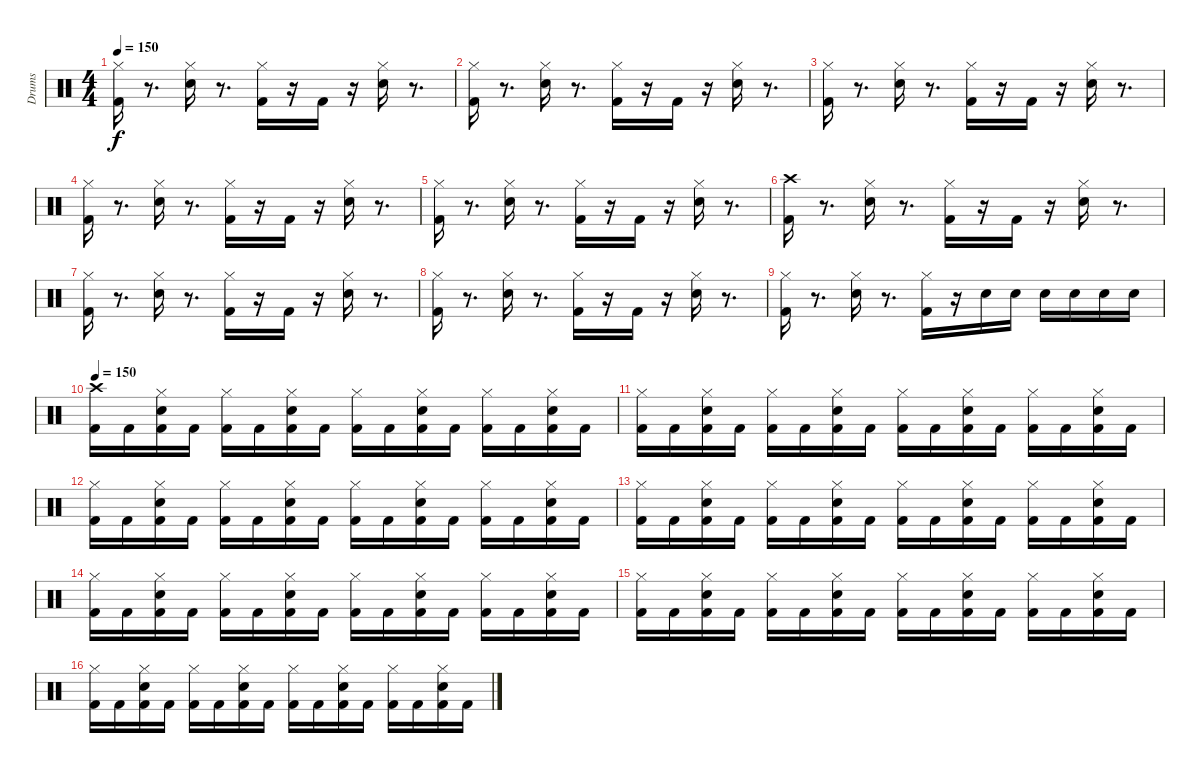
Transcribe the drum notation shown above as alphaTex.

\track ("Drums" "Drums") {instrument percussion}
\staff {score}
\articulation defaults
\ts (4 4)
\tempo 150
\clef neutral
\ks c
("Hi-Hat (closed)" "Kick (hit) 2").16{dy f} r.8{d} ("Hi-Hat (closed)" "Electric Snare (hit)").16 r.8{d} ("Hi-Hat (closed)" "Kick (hit) 2").16 r.16 "Kick (hit) 2".16 r.16 ("Hi-Hat (closed)" "Electric Snare (hit)").16 r.8{d} |
("Hi-Hat (closed)" "Kick (hit) 2").16 r.8{d} ("Hi-Hat (closed)" "Electric Snare (hit)").16 r.8{d} ("Hi-Hat (closed)" "Kick (hit) 2").16 r.16 "Kick (hit) 2".16 r.16 ("Hi-Hat (closed)" "Electric Snare (hit)").16 r.8{d} |
("Hi-Hat (closed)" "Kick (hit) 2").16 r.8{d} ("Hi-Hat (closed)" "Electric Snare (hit)").16 r.8{d} ("Hi-Hat (closed)" "Kick (hit) 2").16 r.16 "Kick (hit) 2".16 r.16 ("Hi-Hat (closed)" "Electric Snare (hit)").16 r.8{d} |
("Hi-Hat (closed)" "Kick (hit) 2").16 r.8{d} ("Hi-Hat (closed)" "Electric Snare (hit)").16 r.8{d} ("Hi-Hat (closed)" "Kick (hit) 2").16 r.16 "Kick (hit) 2".16 r.16 ("Hi-Hat (closed)" "Electric Snare (hit)").16 r.8{d} |
("Hi-Hat (closed)" "Kick (hit) 2").16 r.8{d} ("Hi-Hat (closed)" "Electric Snare (hit)").16 r.8{d} ("Hi-Hat (closed)" "Kick (hit) 2").16 r.16 "Kick (hit) 2".16 r.16 ("Hi-Hat (closed)" "Electric Snare (hit)").16 r.8{d} |
("Crash high (hit)" "Kick (hit) 2").16 r.8{d} ("Hi-Hat (closed)" "Electric Snare (hit)").16 r.8{d} ("Hi-Hat (closed)" "Kick (hit) 2").16 r.16 "Kick (hit) 2".16 r.16 ("Hi-Hat (closed)" "Electric Snare (hit)").16 r.8{d} |
("Hi-Hat (closed)" "Kick (hit) 2").16 r.8{d} ("Hi-Hat (closed)" "Electric Snare (hit)").16 r.8{d} ("Hi-Hat (closed)" "Kick (hit) 2").16 r.16 "Kick (hit) 2".16 r.16 ("Hi-Hat (closed)" "Electric Snare (hit)").16 r.8{d} |
("Hi-Hat (closed)" "Kick (hit) 2").16 r.8{d} ("Hi-Hat (closed)" "Electric Snare (hit)").16 r.8{d} ("Hi-Hat (closed)" "Kick (hit) 2").16 r.16 "Kick (hit) 2".16 r.16 ("Hi-Hat (closed)" "Electric Snare (hit)").16 r.8{d} |
("Hi-Hat (closed)" "Kick (hit) 2").16 r.8{d} ("Hi-Hat (closed)" "Electric Snare (hit)").16 r.8{d} ("Hi-Hat (closed)" "Kick (hit) 2").16 r.16 "Electric Snare (hit)".16 "Electric Snare (hit)".16 "Electric Snare (hit)".16 "Electric Snare (hit)".16 "Electric Snare (hit)".16 "Electric Snare (hit)".16 |
\tempo 150
("Crash high (hit)" "Kick (hit) 2").16 "Kick (hit) 2".16 ("Hi-Hat (closed)" "Electric Snare (hit)" "Kick (hit) 2").16 "Kick (hit) 2".16 ("Hi-Hat (closed)" "Kick (hit) 2").16 "Kick (hit) 2".16 ("Hi-Hat (closed)" "Electric Snare (hit)" "Kick (hit) 2").16 "Kick (hit) 2".16 ("Hi-Hat (closed)" "Kick (hit) 2").16 "Kick (hit) 2".16 ("Hi-Hat (closed)" "Electric Snare (hit)" "Kick (hit) 2").16 "Kick (hit) 2".16 ("Hi-Hat (closed)" "Kick (hit) 2").16 "Kick (hit) 2".16 ("Hi-Hat (closed)" "Electric Snare (hit)" "Kick (hit) 2").16 "Kick (hit) 2".16 |
("Hi-Hat (closed)" "Kick (hit) 2").16 "Kick (hit) 2".16 ("Hi-Hat (closed)" "Electric Snare (hit)" "Kick (hit) 2").16 "Kick (hit) 2".16 ("Hi-Hat (closed)" "Kick (hit) 2").16 "Kick (hit) 2".16 ("Hi-Hat (closed)" "Electric Snare (hit)" "Kick (hit) 2").16 "Kick (hit) 2".16 ("Hi-Hat (closed)" "Kick (hit) 2").16 "Kick (hit) 2".16 ("Hi-Hat (closed)" "Electric Snare (hit)" "Kick (hit) 2").16 "Kick (hit) 2".16 ("Hi-Hat (closed)" "Kick (hit) 2").16 "Kick (hit) 2".16 ("Hi-Hat (closed)" "Electric Snare (hit)" "Kick (hit) 2").16 "Kick (hit) 2".16 |
("Hi-Hat (closed)" "Kick (hit) 2").16 "Kick (hit) 2".16 ("Hi-Hat (closed)" "Electric Snare (hit)" "Kick (hit) 2").16 "Kick (hit) 2".16 ("Hi-Hat (closed)" "Kick (hit) 2").16 "Kick (hit) 2".16 ("Hi-Hat (closed)" "Electric Snare (hit)" "Kick (hit) 2").16 "Kick (hit) 2".16 ("Hi-Hat (closed)" "Kick (hit) 2").16 "Kick (hit) 2".16 ("Hi-Hat (closed)" "Electric Snare (hit)" "Kick (hit) 2").16 "Kick (hit) 2".16 ("Hi-Hat (closed)" "Kick (hit) 2").16 "Kick (hit) 2".16 ("Hi-Hat (closed)" "Electric Snare (hit)" "Kick (hit) 2").16 "Kick (hit) 2".16 |
("Hi-Hat (closed)" "Kick (hit) 2").16 "Kick (hit) 2".16 ("Hi-Hat (closed)" "Electric Snare (hit)" "Kick (hit) 2").16 "Kick (hit) 2".16 ("Hi-Hat (closed)" "Kick (hit) 2").16 "Kick (hit) 2".16 ("Hi-Hat (closed)" "Electric Snare (hit)" "Kick (hit) 2").16 "Kick (hit) 2".16 ("Hi-Hat (closed)" "Kick (hit) 2").16 "Kick (hit) 2".16 ("Hi-Hat (closed)" "Electric Snare (hit)" "Kick (hit) 2").16 "Kick (hit) 2".16 ("Hi-Hat (closed)" "Kick (hit) 2").16 "Kick (hit) 2".16 ("Hi-Hat (closed)" "Electric Snare (hit)" "Kick (hit) 2").16 "Kick (hit) 2".16 |
("Hi-Hat (closed)" "Kick (hit) 2").16 "Kick (hit) 2".16 ("Hi-Hat (closed)" "Electric Snare (hit)" "Kick (hit) 2").16 "Kick (hit) 2".16 ("Hi-Hat (closed)" "Kick (hit) 2").16 "Kick (hit) 2".16 ("Hi-Hat (closed)" "Electric Snare (hit)" "Kick (hit) 2").16 "Kick (hit) 2".16 ("Hi-Hat (closed)" "Kick (hit) 2").16 "Kick (hit) 2".16 ("Hi-Hat (closed)" "Electric Snare (hit)" "Kick (hit) 2").16 "Kick (hit) 2".16 ("Hi-Hat (closed)" "Kick (hit) 2").16 "Kick (hit) 2".16 ("Hi-Hat (closed)" "Electric Snare (hit)" "Kick (hit) 2").16 "Kick (hit) 2".16 |
("Hi-Hat (closed)" "Kick (hit) 2").16 "Kick (hit) 2".16 ("Hi-Hat (closed)" "Electric Snare (hit)" "Kick (hit) 2").16 "Kick (hit) 2".16 ("Hi-Hat (closed)" "Kick (hit) 2").16 "Kick (hit) 2".16 ("Hi-Hat (closed)" "Electric Snare (hit)" "Kick (hit) 2").16 "Kick (hit) 2".16 ("Hi-Hat (closed)" "Kick (hit) 2").16 "Kick (hit) 2".16 ("Hi-Hat (closed)" "Electric Snare (hit)" "Kick (hit) 2").16 "Kick (hit) 2".16 ("Hi-Hat (closed)" "Kick (hit) 2").16 "Kick (hit) 2".16 ("Hi-Hat (closed)" "Electric Snare (hit)" "Kick (hit) 2").16 "Kick (hit) 2".16 |
("Hi-Hat (closed)" "Kick (hit) 2").16 "Kick (hit) 2".16 ("Hi-Hat (closed)" "Electric Snare (hit)" "Kick (hit) 2").16 "Kick (hit) 2".16 ("Hi-Hat (closed)" "Kick (hit) 2").16 "Kick (hit) 2".16 ("Hi-Hat (closed)" "Electric Snare (hit)" "Kick (hit) 2").16 "Kick (hit) 2".16 ("Hi-Hat (closed)" "Kick (hit) 2").16 "Kick (hit) 2".16 ("Hi-Hat (closed)" "Electric Snare (hit)" "Kick (hit) 2").16 "Kick (hit) 2".16 ("Hi-Hat (closed)" "Kick (hit) 2").16 "Kick (hit) 2".16 ("Hi-Hat (closed)" "Electric Snare (hit)" "Kick (hit) 2").16 "Kick (hit) 2".16
